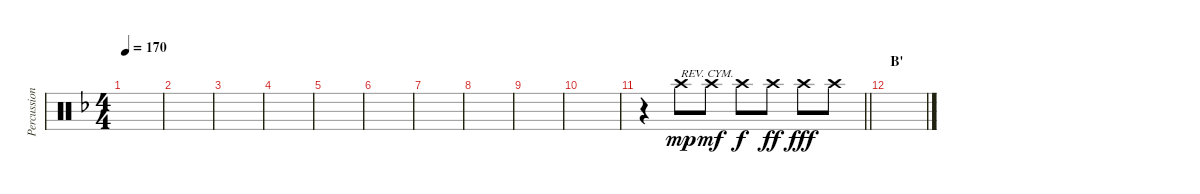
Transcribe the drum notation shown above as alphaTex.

\track ("Percussion (Tainaka Ritsu)" "Percussion") {instrument percussion}
\staff {score}
\articulation defaults
\ts (4 4)
\tempo 170
\clef neutral
\ks f
|
|
|
|
|
|
|
|
|
|
\barLineRight lightlight
r.4{volume 0} "Crash high (hit)".8{txt "REV. CYM." dy mp volume 13} "Crash high (hit)".8{dy mf} "Crash high (hit)".8{dy f} "Crash high (hit)".8{dy ff} "Crash high (hit)".8{dy fff} "Crash high (hit)".8 |
\section ("" "B'")
